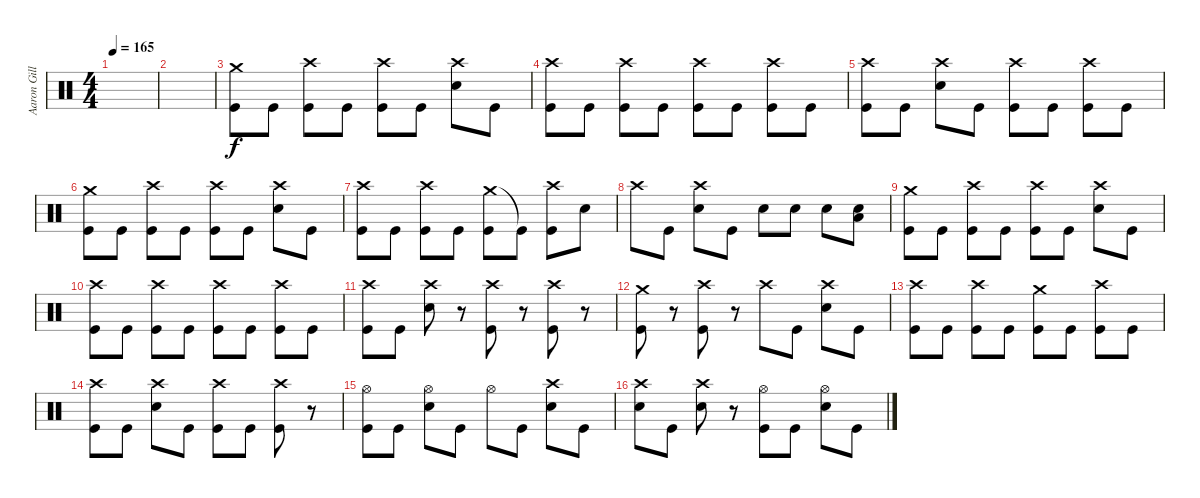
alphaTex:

\track ("Aaron Gillepsie (Drums)" "Aaron Gill") {instrument percussion}
\staff {score}
\articulation defaults
\ts (4 4)
\tempo 165
\clef neutral
\ks c
|
|
("Crash medium (hit)" "Kick (hit)").8 "Kick (hit)".8 ("Crash high (hit)" "Kick (hit)").8 "Kick (hit)".8 ("Crash high (hit)" "Kick (hit)").8 "Kick (hit)".8 ("Crash high (hit)" "Electric Snare (hit)").8 "Kick (hit)".8 |
("Crash high (hit)" "Kick (hit)").8 "Kick (hit)".8 ("Crash high (hit)" "Kick (hit)").8 "Kick (hit)".8 ("Crash high (hit)" "Kick (hit)").8 "Kick (hit)".8 ("Crash high (hit)" "Kick (hit)").8 "Kick (hit)".8 |
("Crash high (hit)" "Kick (hit)").8 "Kick (hit)".8 ("Crash high (hit)" "Electric Snare (hit)").8 "Kick (hit)".8 ("Crash high (hit)" "Kick (hit)").8 "Kick (hit)".8 ("Crash high (hit)" "Kick (hit)").8 "Kick (hit)".8 |
("Crash medium (hit)" "Kick (hit)").8 "Kick (hit)".8 ("Crash high (hit)" "Kick (hit)").8 "Kick (hit)".8 ("Crash high (hit)" "Kick (hit)").8 "Kick (hit)".8 ("Crash high (hit)" "Electric Snare (hit)").8 "Kick (hit)".8 |
("Crash high (hit)" "Kick (hit)").8 "Kick (hit)".8 ("Crash high (hit)" "Kick (hit)").8 "Kick (hit)".8 ("Crash medium (hit)" "Kick (hit)").8 "Kick (hit)"{t}.8 ("Crash high (hit)" "Kick (hit)").8 "Electric Snare (hit)".8 |
"Crash high (hit)".8 "Kick (hit)".8 ("Crash high (hit)" "Electric Snare (hit)").8 "Kick (hit)".8 "Electric Snare (hit)".8 "Electric Snare (hit)".8 "Electric Snare (hit)".8 ("Low Floor Tom (hit)" "Electric Snare (hit)").8 |
("Crash medium (hit)" "Kick (hit)").8 "Kick (hit)".8 ("Crash high (hit)" "Kick (hit)").8 "Kick (hit)".8 ("Crash high (hit)" "Kick (hit)").8 "Kick (hit)".8 ("Crash high (hit)" "Electric Snare (hit)").8 "Kick (hit)".8 |
("Crash high (hit)" "Kick (hit)").8 "Kick (hit)".8 ("Crash high (hit)" "Kick (hit)").8 "Kick (hit)".8 ("Crash high (hit)" "Kick (hit)").8 "Kick (hit)".8 ("Crash high (hit)" "Kick (hit)").8 "Kick (hit)".8 |
("Crash high (hit)" "Kick (hit)").8 "Kick (hit)".8 ("Crash high (hit)" "Electric Snare (hit)").8 r.8 ("Crash high (hit)" "Kick (hit)").8 r.8 ("Crash high (hit)" "Kick (hit)").8 r.8 |
("Crash medium (hit)" "Kick (hit)").8 r.8 ("Crash high (hit)" "Kick (hit)").8 r.8 "Crash high (hit)".8 "Kick (hit)".8 ("Crash high (hit)" "Electric Snare (hit)").8 "Kick (hit)".8 |
("Crash high (hit)" "Kick (hit)").8 "Kick (hit)".8 ("Crash high (hit)" "Kick (hit)").8 "Kick (hit)".8 ("Crash medium (hit)" "Kick (hit)").8 "Kick (hit)".8 ("Crash high (hit)" "Kick (hit)").8 "Kick (hit)".8 |
("Crash high (hit)" "Kick (hit)").8 "Kick (hit)".8 ("Crash high (hit)" "Electric Snare (hit)").8 "Kick (hit)".8 ("Crash high (hit)" "Kick (hit)").8 "Kick (hit)".8 ("Crash high (hit)" "Kick (hit)").8 r.8 |
("Hi-Hat (open)" "Kick (hit)").8 "Kick (hit)".8 ("Hi-Hat (open)" "Electric Snare (hit)").8 "Kick (hit)".8 "Hi-Hat (open)".8 "Kick (hit)".8 ("Crash high (hit)" "Electric Snare (hit)").8 "Kick (hit)".8 |
("Crash high (hit)" "Electric Snare (hit)").8 "Kick (hit)".8 ("Crash high (hit)" "Electric Snare (hit)").8 r.8 ("Hi-Hat (open)" "Kick (hit)").8 "Kick (hit)".8 ("Hi-Hat (open)" "Electric Snare (hit)").8 "Kick (hit)".8
